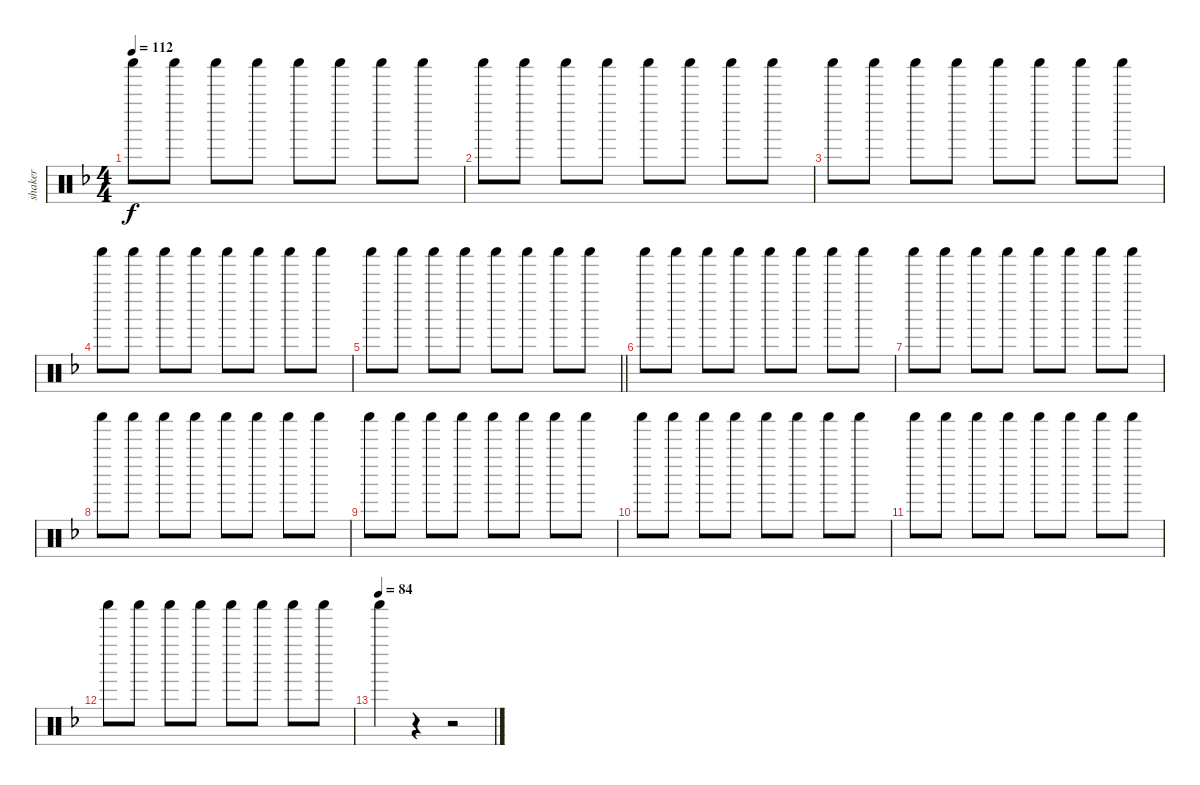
\track ("shaker" "shaker") {instrument percussion}
\staff {score}
\articulation defaults
\ts (4 4)
\tempo 112
\clef neutral
\ks f "Shaker (hit)".8{dy f} "Shaker (hit)".8 "Shaker (hit)".8 "Shaker (hit)".8 "Shaker (hit)".8 "Shaker (hit)".8 "Shaker (hit)".8 "Shaker (hit)".8
|
"Shaker (hit)".8 "Shaker (hit)".8 "Shaker (hit)".8 "Shaker (hit)".8 "Shaker (hit)".8 "Shaker (hit)".8 "Shaker (hit)".8 "Shaker (hit)".8 |
"Shaker (hit)".8 "Shaker (hit)".8 "Shaker (hit)".8 "Shaker (hit)".8 "Shaker (hit)".8 "Shaker (hit)".8 "Shaker (hit)".8 "Shaker (hit)".8 |
"Shaker (hit)".8 "Shaker (hit)".8 "Shaker (hit)".8 "Shaker (hit)".8 "Shaker (hit)".8 "Shaker (hit)".8 "Shaker (hit)".8 "Shaker (hit)".8 |
\barLineRight lightlight "Shaker (hit)".8 "Shaker (hit)".8 "Shaker (hit)".8 "Shaker (hit)".8 "Shaker (hit)".8 "Shaker (hit)".8 "Shaker (hit)".8 "Shaker (hit)".8
|
"Shaker (hit)".8 "Shaker (hit)".8 "Shaker (hit)".8 "Shaker (hit)".8 "Shaker (hit)".8 "Shaker (hit)".8 "Shaker (hit)".8 "Shaker (hit)".8 |
"Shaker (hit)".8 "Shaker (hit)".8 "Shaker (hit)".8 "Shaker (hit)".8 "Shaker (hit)".8 "Shaker (hit)".8 "Shaker (hit)".8 "Shaker (hit)".8 |
"Shaker (hit)".8 "Shaker (hit)".8 "Shaker (hit)".8 "Shaker (hit)".8 "Shaker (hit)".8 "Shaker (hit)".8 "Shaker (hit)".8 "Shaker (hit)".8 |
"Shaker (hit)".8 "Shaker (hit)".8 "Shaker (hit)".8 "Shaker (hit)".8 "Shaker (hit)".8 "Shaker (hit)".8 "Shaker (hit)".8 "Shaker (hit)".8 |
"Shaker (hit)".8 "Shaker (hit)".8 "Shaker (hit)".8 "Shaker (hit)".8 "Shaker (hit)".8 "Shaker (hit)".8 "Shaker (hit)".8 "Shaker (hit)".8 |
"Shaker (hit)".8 "Shaker (hit)".8 "Shaker (hit)".8 "Shaker (hit)".8 "Shaker (hit)".8 "Shaker (hit)".8 "Shaker (hit)".8 "Shaker (hit)".8 |
"Shaker (hit)".8 "Shaker (hit)".8 "Shaker (hit)".8 "Shaker (hit)".8 "Shaker (hit)".8 "Shaker (hit)".8 "Shaker (hit)".8 "Shaker (hit)".8 |
\tempo (84)
"Shaker (hit)".4 r.4 r.2
